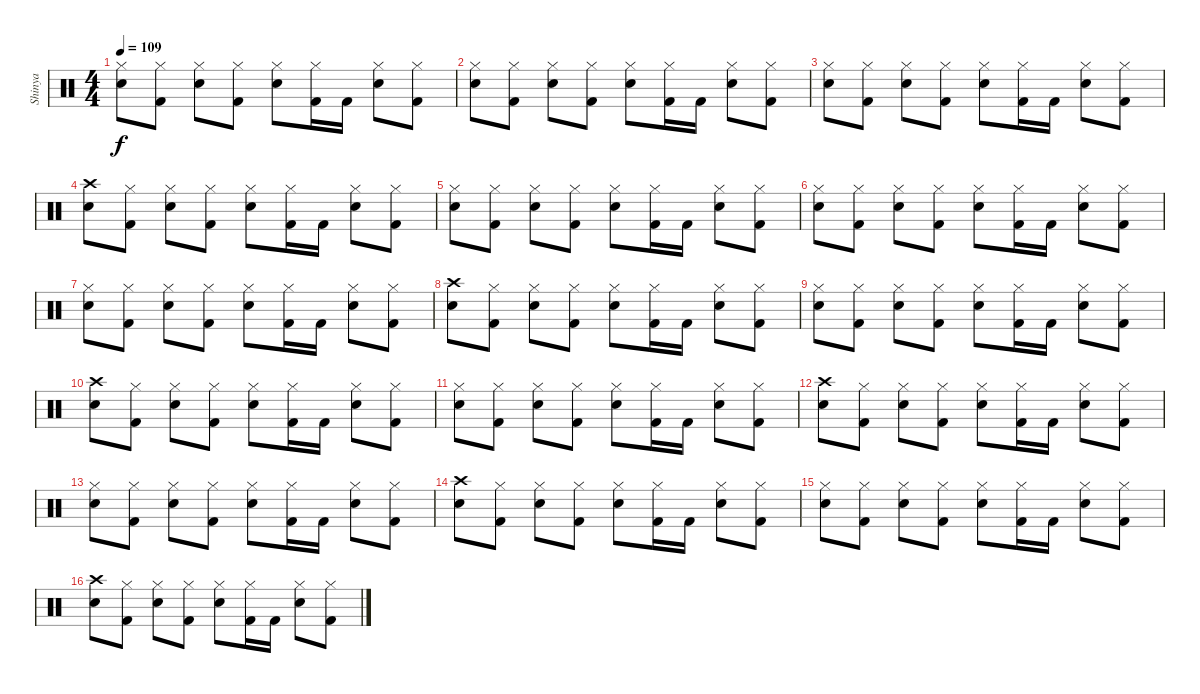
\track ("Shinya" "Shinya") {instrument percussion}
\staff {score}
\articulation defaults
\ts (4 4)
\tempo 109
\clef neutral
\ks c
("Hi-Hat (closed)" "Snare (hit) 2").8{dy f} ("Hi-Hat (closed)" "Kick (hit) 2").8 ("Hi-Hat (closed)" "Snare (hit) 2").8 ("Hi-Hat (closed)" "Kick (hit) 2").8 ("Hi-Hat (closed)" "Snare (hit) 2").8 ("Hi-Hat (closed)" "Kick (hit) 2").16 "Kick (hit) 2".16 ("Hi-Hat (closed)" "Snare (hit) 2").8 ("Hi-Hat (closed)" "Kick (hit) 2").8 |
("Hi-Hat (closed)" "Snare (hit) 2").8 ("Hi-Hat (closed)" "Kick (hit) 2").8 ("Hi-Hat (closed)" "Snare (hit) 2").8 ("Hi-Hat (closed)" "Kick (hit) 2").8 ("Hi-Hat (closed)" "Snare (hit) 2").8 ("Hi-Hat (closed)" "Kick (hit) 2").16 "Kick (hit) 2".16 ("Hi-Hat (closed)" "Snare (hit) 2").8 ("Hi-Hat (closed)" "Kick (hit) 2").8 |
("Hi-Hat (closed)" "Snare (hit) 2").8 ("Hi-Hat (closed)" "Kick (hit) 2").8 ("Hi-Hat (closed)" "Snare (hit) 2").8 ("Hi-Hat (closed)" "Kick (hit) 2").8 ("Hi-Hat (closed)" "Snare (hit) 2").8 ("Hi-Hat (closed)" "Kick (hit) 2").16 "Kick (hit) 2".16 ("Hi-Hat (closed)" "Snare (hit) 2").8 ("Hi-Hat (closed)" "Kick (hit) 2").8 |
("Crash high (hit)" "Snare (hit) 2").8 ("Hi-Hat (closed)" "Kick (hit) 2").8 ("Hi-Hat (closed)" "Snare (hit) 2").8 ("Hi-Hat (closed)" "Kick (hit) 2").8 ("Hi-Hat (closed)" "Snare (hit) 2").8 ("Hi-Hat (closed)" "Kick (hit) 2").16 "Kick (hit) 2".16 ("Hi-Hat (closed)" "Snare (hit) 2").8 ("Hi-Hat (closed)" "Kick (hit) 2").8 |
("Hi-Hat (closed)" "Snare (hit) 2").8 ("Hi-Hat (closed)" "Kick (hit) 2").8 ("Hi-Hat (closed)" "Snare (hit) 2").8 ("Hi-Hat (closed)" "Kick (hit) 2").8 ("Hi-Hat (closed)" "Snare (hit) 2").8 ("Hi-Hat (closed)" "Kick (hit) 2").16 "Kick (hit) 2".16 ("Hi-Hat (closed)" "Snare (hit) 2").8 ("Hi-Hat (closed)" "Kick (hit) 2").8 |
("Hi-Hat (closed)" "Snare (hit) 2").8 ("Hi-Hat (closed)" "Kick (hit) 2").8 ("Hi-Hat (closed)" "Snare (hit) 2").8 ("Hi-Hat (closed)" "Kick (hit) 2").8 ("Hi-Hat (closed)" "Snare (hit) 2").8 ("Hi-Hat (closed)" "Kick (hit) 2").16 "Kick (hit) 2".16 ("Hi-Hat (closed)" "Snare (hit) 2").8 ("Hi-Hat (closed)" "Kick (hit) 2").8 |
("Hi-Hat (closed)" "Snare (hit) 2").8 ("Hi-Hat (closed)" "Kick (hit) 2").8 ("Hi-Hat (closed)" "Snare (hit) 2").8 ("Hi-Hat (closed)" "Kick (hit) 2").8 ("Hi-Hat (closed)" "Snare (hit) 2").8 ("Hi-Hat (closed)" "Kick (hit) 2").16 "Kick (hit) 2".16 ("Hi-Hat (closed)" "Snare (hit) 2").8 ("Hi-Hat (closed)" "Kick (hit) 2").8 |
("Crash high (hit)" "Snare (hit) 2").8 ("Hi-Hat (closed)" "Kick (hit) 2").8 ("Hi-Hat (closed)" "Snare (hit) 2").8 ("Hi-Hat (closed)" "Kick (hit) 2").8 ("Hi-Hat (closed)" "Snare (hit) 2").8 ("Hi-Hat (closed)" "Kick (hit) 2").16 "Kick (hit) 2".16 ("Hi-Hat (closed)" "Snare (hit) 2").8 ("Hi-Hat (closed)" "Kick (hit) 2").8 |
("Hi-Hat (closed)" "Snare (hit) 2").8 ("Hi-Hat (closed)" "Kick (hit) 2").8 ("Hi-Hat (closed)" "Snare (hit) 2").8 ("Hi-Hat (closed)" "Kick (hit) 2").8 ("Hi-Hat (closed)" "Snare (hit) 2").8 ("Hi-Hat (closed)" "Kick (hit) 2").16 "Kick (hit) 2".16 ("Hi-Hat (closed)" "Snare (hit) 2").8 ("Hi-Hat (closed)" "Kick (hit) 2").8 |
("Crash high (hit)" "Snare (hit) 2").8 ("Hi-Hat (closed)" "Kick (hit) 2").8 ("Hi-Hat (closed)" "Snare (hit) 2").8 ("Hi-Hat (closed)" "Kick (hit) 2").8 ("Hi-Hat (closed)" "Snare (hit) 2").8 ("Hi-Hat (closed)" "Kick (hit) 2").16 "Kick (hit) 2".16 ("Hi-Hat (closed)" "Snare (hit) 2").8 ("Hi-Hat (closed)" "Kick (hit) 2").8 |
("Hi-Hat (closed)" "Snare (hit) 2").8 ("Hi-Hat (closed)" "Kick (hit) 2").8 ("Hi-Hat (closed)" "Snare (hit) 2").8 ("Hi-Hat (closed)" "Kick (hit) 2").8 ("Hi-Hat (closed)" "Snare (hit) 2").8 ("Hi-Hat (closed)" "Kick (hit) 2").16 "Kick (hit) 2".16 ("Hi-Hat (closed)" "Snare (hit) 2").8 ("Hi-Hat (closed)" "Kick (hit) 2").8 |
("Crash high (hit)" "Snare (hit) 2").8 ("Hi-Hat (closed)" "Kick (hit) 2").8 ("Hi-Hat (closed)" "Snare (hit) 2").8 ("Hi-Hat (closed)" "Kick (hit) 2").8 ("Hi-Hat (closed)" "Snare (hit) 2").8 ("Hi-Hat (closed)" "Kick (hit) 2").16 "Kick (hit) 2".16 ("Hi-Hat (closed)" "Snare (hit) 2").8 ("Hi-Hat (closed)" "Kick (hit) 2").8 |
("Hi-Hat (closed)" "Snare (hit) 2").8 ("Hi-Hat (closed)" "Kick (hit) 2").8 ("Hi-Hat (closed)" "Snare (hit) 2").8 ("Hi-Hat (closed)" "Kick (hit) 2").8 ("Hi-Hat (closed)" "Snare (hit) 2").8 ("Hi-Hat (closed)" "Kick (hit) 2").16 "Kick (hit) 2".16 ("Hi-Hat (closed)" "Snare (hit) 2").8 ("Hi-Hat (closed)" "Kick (hit) 2").8 |
("Crash high (hit)" "Snare (hit) 2").8 ("Hi-Hat (closed)" "Kick (hit) 2").8 ("Hi-Hat (closed)" "Snare (hit) 2").8 ("Hi-Hat (closed)" "Kick (hit) 2").8 ("Hi-Hat (closed)" "Snare (hit) 2").8 ("Hi-Hat (closed)" "Kick (hit) 2").16 "Kick (hit) 2".16 ("Hi-Hat (closed)" "Snare (hit) 2").8 ("Hi-Hat (closed)" "Kick (hit) 2").8 |
("Hi-Hat (closed)" "Snare (hit) 2").8 ("Hi-Hat (closed)" "Kick (hit) 2").8 ("Hi-Hat (closed)" "Snare (hit) 2").8 ("Hi-Hat (closed)" "Kick (hit) 2").8 ("Hi-Hat (closed)" "Snare (hit) 2").8 ("Hi-Hat (closed)" "Kick (hit) 2").16 "Kick (hit) 2".16 ("Hi-Hat (closed)" "Snare (hit) 2").8 ("Hi-Hat (closed)" "Kick (hit) 2").8 |
("Crash high (hit)" "Snare (hit) 2").8 ("Hi-Hat (closed)" "Kick (hit) 2").8 ("Hi-Hat (closed)" "Snare (hit) 2").8 ("Hi-Hat (closed)" "Kick (hit) 2").8 ("Hi-Hat (closed)" "Snare (hit) 2").8 ("Hi-Hat (closed)" "Kick (hit) 2").16 "Kick (hit) 2".16 ("Hi-Hat (closed)" "Snare (hit) 2").8 ("Hi-Hat (closed)" "Kick (hit) 2").8
